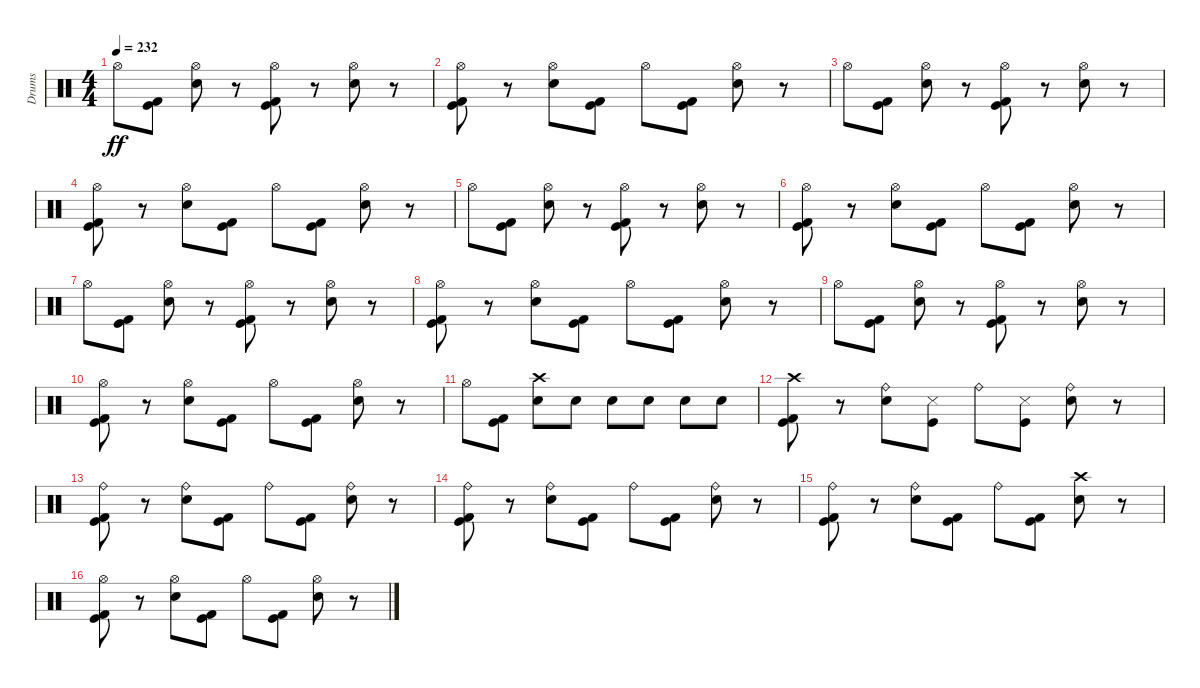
\track ("Drums" "Drums") {instrument percussion}
\staff {score}
\articulation defaults
\ts (4 4)
\tempo 232
\clef neutral
\ks c "Hi-Hat (open)".8{dy ff}
("Kick (hit)" "Kick (hit) 2").8 ("Snare (hit) 2" "Hi-Hat (open)").8 r.8 ("Kick (hit)" "Kick (hit) 2" "Hi-Hat (open)").8 r.8 ("Snare (hit) 2" "Hi-Hat (open)").8 r.8 |
("Kick (hit)" "Kick (hit) 2" "Hi-Hat (open)").8 r.8 ("Snare (hit) 2" "Hi-Hat (open)").8 ("Kick (hit)" "Kick (hit) 2").8 "Hi-Hat (open)".8 ("Kick (hit)" "Kick (hit) 2").8 ("Snare (hit) 2" "Hi-Hat (open)").8 r.8 |
"Hi-Hat (open)".8 ("Kick (hit)" "Kick (hit) 2").8 ("Snare (hit) 2" "Hi-Hat (open)").8 r.8 ("Kick (hit)" "Kick (hit) 2" "Hi-Hat (open)").8 r.8 ("Snare (hit) 2" "Hi-Hat (open)").8 r.8 |
("Kick (hit)" "Kick (hit) 2" "Hi-Hat (open)").8 r.8 ("Snare (hit) 2" "Hi-Hat (open)").8 ("Kick (hit)" "Kick (hit) 2").8 "Hi-Hat (open)".8 ("Kick (hit)" "Kick (hit) 2").8 ("Snare (hit) 2" "Hi-Hat (open)").8 r.8 |
"Hi-Hat (open)".8 ("Kick (hit)" "Kick (hit) 2").8 ("Snare (hit) 2" "Hi-Hat (open)").8 r.8 ("Kick (hit)" "Kick (hit) 2" "Hi-Hat (open)").8 r.8 ("Snare (hit) 2" "Hi-Hat (open)").8 r.8 |
("Kick (hit)" "Kick (hit) 2" "Hi-Hat (open)").8 r.8 ("Snare (hit) 2" "Hi-Hat (open)").8 ("Kick (hit)" "Kick (hit) 2").8 "Hi-Hat (open)".8 ("Kick (hit)" "Kick (hit) 2").8 ("Snare (hit) 2" "Hi-Hat (open)").8 r.8 |
"Hi-Hat (open)".8 ("Kick (hit)" "Kick (hit) 2").8 ("Snare (hit) 2" "Hi-Hat (open)").8 r.8 ("Kick (hit)" "Kick (hit) 2" "Hi-Hat (open)").8 r.8 ("Snare (hit) 2" "Hi-Hat (open)").8 r.8 |
("Kick (hit)" "Kick (hit) 2" "Hi-Hat (open)").8 r.8 ("Snare (hit) 2" "Hi-Hat (open)").8 ("Kick (hit)" "Kick (hit) 2").8 "Hi-Hat (open)".8 ("Kick (hit)" "Kick (hit) 2").8 ("Snare (hit) 2" "Hi-Hat (open)").8 r.8 |
"Hi-Hat (open)".8 ("Kick (hit)" "Kick (hit) 2").8 ("Snare (hit) 2" "Hi-Hat (open)").8 r.8 ("Kick (hit)" "Kick (hit) 2" "Hi-Hat (open)").8 r.8 ("Snare (hit) 2" "Hi-Hat (open)").8 r.8 |
("Kick (hit)" "Kick (hit) 2" "Hi-Hat (open)").8 r.8 ("Snare (hit) 2" "Hi-Hat (open)").8 ("Kick (hit)" "Kick (hit) 2").8 "Hi-Hat (open)".8 ("Kick (hit)" "Kick (hit) 2").8 ("Snare (hit) 2" "Hi-Hat (open)").8 r.8 |
"Hi-Hat (open)".8 ("Kick (hit)" "Kick (hit) 2").8 ("Snare (hit) 2" "Crash high (hit)").8 "Snare (hit) 2".8 "Snare (hit) 2".8 "Snare (hit) 2".8 "Snare (hit) 2".8 "Snare (hit) 2".8 |
("Kick (hit)" "Kick (hit) 2" "Crash high (hit)").8 r.8 ("Snare (hit) 2" "Ride (bell)").8 ("Kick (hit)" "Snare (side stick) 3").8 "Ride (bell)".8 ("Kick (hit)" "Snare (side stick) 3").8 ("Snare (hit) 2" "Ride (bell)").8 r.8 |
("Kick (hit)" "Kick (hit) 2" "Ride (bell)").8 r.8 ("Snare (hit) 2" "Ride (bell)").8 ("Kick (hit)" "Kick (hit) 2").8 "Ride (bell)".8 ("Kick (hit)" "Kick (hit) 2").8 ("Snare (hit) 2" "Ride (bell)").8 r.8 |
("Kick (hit)" "Kick (hit) 2" "Ride (bell)").8 r.8 ("Snare (hit) 2" "Ride (bell)").8 ("Kick (hit)" "Kick (hit) 2").8 "Ride (bell)".8 ("Kick (hit)" "Kick (hit) 2").8 ("Snare (hit) 2" "Ride (bell)").8 r.8 |
("Kick (hit)" "Kick (hit) 2" "Ride (bell)").8 r.8 ("Snare (hit) 2" "Ride (bell)").8 ("Kick (hit)" "Kick (hit) 2").8 "Ride (bell)".8 ("Kick (hit)" "Kick (hit) 2").8 ("Snare (hit) 2" "Crash high (hit)").8 r.8 |
("Kick (hit)" "Kick (hit) 2" "Hi-Hat (open)").8 r.8 ("Snare (hit) 2" "Hi-Hat (open)").8 ("Kick (hit)" "Kick (hit) 2").8 "Hi-Hat (open)".8 ("Kick (hit)" "Kick (hit) 2").8 ("Snare (hit) 2" "Hi-Hat (open)").8 r.8
